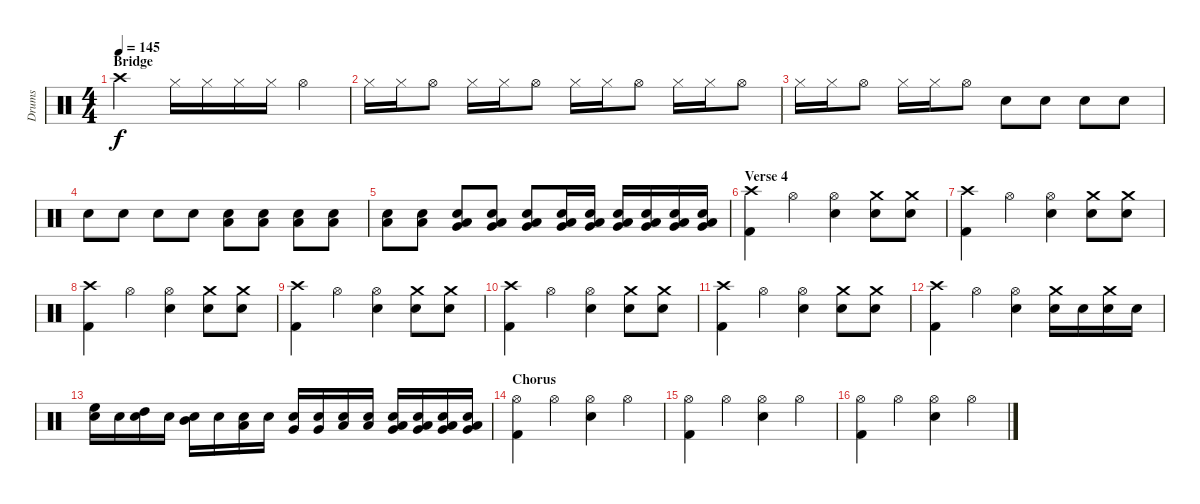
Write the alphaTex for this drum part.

\track ("Drums" "Drums") {instrument percussion}
\staff {score}
\articulation defaults
\ts (4 4)
\section ("" "Bridge")
\tempo 145
\clef neutral
\ks c "Crash high (hit)".2{dy f} "Hi-Hat (closed)".16 "Hi-Hat (closed)".16 "Hi-Hat (closed)".16 "Hi-Hat (closed)".16 "Hi-Hat (open)".4
|
"Hi-Hat (closed)".16 "Hi-Hat (closed)".16 "Hi-Hat (open)".8 "Hi-Hat (closed)".16 "Hi-Hat (closed)".16 "Hi-Hat (open)".8 "Hi-Hat (closed)".16 "Hi-Hat (closed)".16 "Hi-Hat (open)".8 "Hi-Hat (closed)".16 "Hi-Hat (closed)".16 "Hi-Hat (open)".8 |
"Hi-Hat (closed)".16 "Hi-Hat (closed)".16 "Hi-Hat (open)".8 "Hi-Hat (closed)".16 "Hi-Hat (closed)".16 "Hi-Hat (open)".8 "Electric Snare (hit)".8 "Electric Snare (hit)".8 "Electric Snare (hit)".8 "Electric Snare (hit)".8 |
"Electric Snare (hit)".8 "Electric Snare (hit)".8 "Electric Snare (hit)".8 "Electric Snare (hit)".8 ("Low Floor Tom (hit)" "Electric Snare (hit)").8 ("Low Floor Tom (hit)" "Electric Snare (hit)").8 ("Low Floor Tom (hit)" "Electric Snare (hit)").8 ("Low Floor Tom (hit)" "Electric Snare (hit)").8 |
("Low Floor Tom (hit)" "Electric Snare (hit)").8 ("Low Floor Tom (hit)" "Electric Snare (hit)").8 ("Low Floor Tom (hit)" "Electric Snare (hit)" "Very Low Tom (hit)").8 ("Low Floor Tom (hit)" "Electric Snare (hit)" "Very Low Tom (hit)").8 ("Low Floor Tom (hit)" "Electric Snare (hit)" "Very Low Tom (hit)").8 ("Low Floor Tom (hit)" "Electric Snare (hit)" "Very Low Tom (hit)").16 ("Low Floor Tom (hit)" "Electric Snare (hit)" "Very Low Tom (hit)").16 ("Low Floor Tom (hit)" "Electric Snare (hit)" "Very Low Tom (hit)").16 ("Low Floor Tom (hit)" "Electric Snare (hit)" "Very Low Tom (hit)").16 ("Low Floor Tom (hit)" "Electric Snare (hit)" "Very Low Tom (hit)").16 ("Low Floor Tom (hit)" "Electric Snare (hit)" "Very Low Tom (hit)").16 |
\section ("" "Verse 4")
("Crash high (hit)" "Kick (hit) 2").4 "Hi-Hat (open)".4 ("Hi-Hat (open)" "Electric Snare (hit)").4 ("Crash medium (hit)" "Electric Snare (hit)").8 ("Crash medium (hit)" "Electric Snare (hit)").8 |
("Crash high (hit)" "Kick (hit) 2").4 "Hi-Hat (open)".4 ("Hi-Hat (open)" "Electric Snare (hit)").4 ("Crash medium (hit)" "Electric Snare (hit)").8 ("Crash medium (hit)" "Electric Snare (hit)").8 |
("Crash high (hit)" "Kick (hit) 2").4 "Hi-Hat (open)".4 ("Hi-Hat (open)" "Electric Snare (hit)").4 ("Crash medium (hit)" "Electric Snare (hit)").8 ("Crash medium (hit)" "Electric Snare (hit)").8 |
("Crash high (hit)" "Kick (hit) 2").4 "Hi-Hat (open)".4 ("Hi-Hat (open)" "Electric Snare (hit)").4 ("Crash medium (hit)" "Electric Snare (hit)").8 ("Crash medium (hit)" "Electric Snare (hit)").8 |
("Crash high (hit)" "Kick (hit) 2").4 "Hi-Hat (open)".4 ("Hi-Hat (open)" "Electric Snare (hit)").4 ("Crash medium (hit)" "Electric Snare (hit)").8 ("Crash medium (hit)" "Electric Snare (hit)").8 |
("Crash high (hit)" "Kick (hit) 2").4 "Hi-Hat (open)".4 ("Hi-Hat (open)" "Electric Snare (hit)").4 ("Crash medium (hit)" "Electric Snare (hit)").8 ("Crash medium (hit)" "Electric Snare (hit)").8 |
("Crash high (hit)" "Kick (hit) 2").4 "Hi-Hat (open)".4 ("Hi-Hat (open)" "Electric Snare (hit)").4 ("Crash medium (hit)" "Electric Snare (hit)").16 "Electric Snare (hit)".16 ("Crash medium (hit)" "Electric Snare (hit)").16 "Electric Snare (hit)".16 |
("High Floor Tom (hit)" "Electric Snare (hit)").16 "Electric Snare (hit)".16 ("High Tom (hit)" "Electric Snare (hit)").16 "Electric Snare (hit)".16 ("Mid Tom (hit)" "Electric Snare (hit)").16 "Electric Snare (hit)".16 ("Low Tom (hit)" "Electric Snare (hit)").16 "Electric Snare (hit)".16 ("Very Low Tom (hit)" "Electric Snare (hit)").16 ("Very Low Tom (hit)" "Electric Snare (hit)").16 ("Low Floor Tom (hit)" "Electric Snare (hit)").16 ("Low Floor Tom (hit)" "Electric Snare (hit)").16 ("Very Low Tom (hit)" "Electric Snare (hit)" "Low Floor Tom (hit)").16 ("Very Low Tom (hit)" "Electric Snare (hit)" "Low Floor Tom (hit)").16 ("Very Low Tom (hit)" "Electric Snare (hit)" "Low Floor Tom (hit)").16 ("Very Low Tom (hit)" "Electric Snare (hit)" "Low Floor Tom (hit)").16 |
\section ("" "Chorus")
("Hi-Hat (open)" "Kick (hit) 2").4 "Hi-Hat (open)".4 ("Hi-Hat (open)" "Electric Snare (hit)").4 "Hi-Hat (open)".4 |
("Hi-Hat (open)" "Kick (hit) 2").4 "Hi-Hat (open)".4 ("Hi-Hat (open)" "Electric Snare (hit)").4 "Hi-Hat (open)".4 |
("Hi-Hat (open)" "Kick (hit) 2").4 "Hi-Hat (open)".4 ("Hi-Hat (open)" "Electric Snare (hit)").4 "Hi-Hat (open)".4
